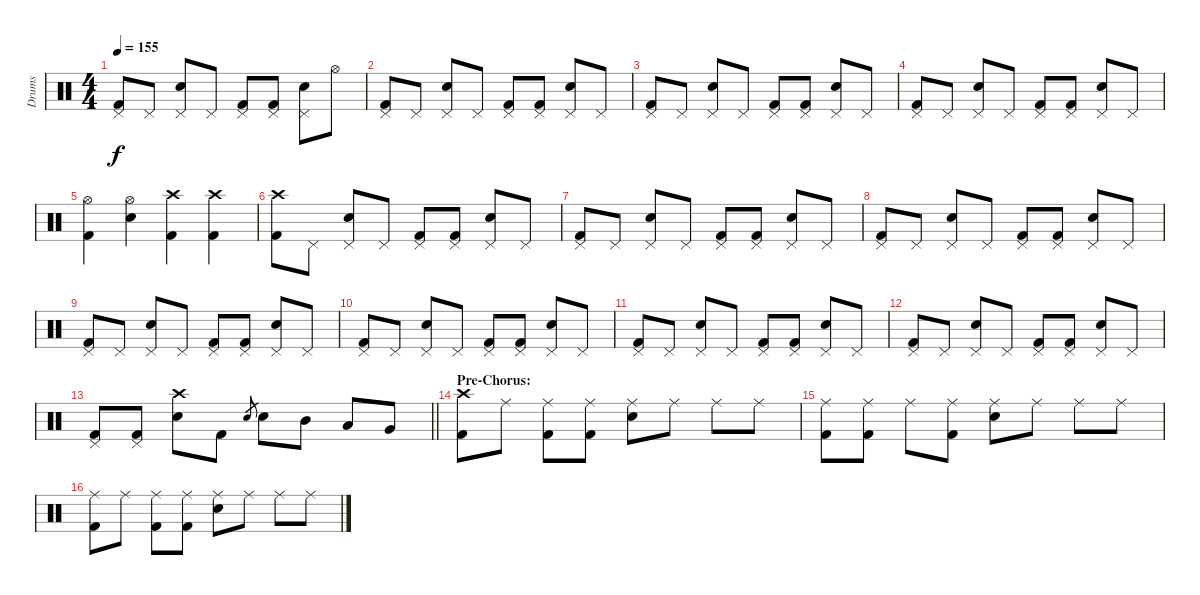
\track ("Drums" "Drums") {instrument percussion}
\staff {score}
\articulation defaults
\ts (4 4)
\tempo 155
\clef neutral
\ks c
("Pedal Hi-Hat (hit)" "Kick (hit) 2").8{dy f} "Pedal Hi-Hat (hit)".8 ("Pedal Hi-Hat (hit)" "Electric Snare (hit)").8 "Pedal Hi-Hat (hit)".8 ("Pedal Hi-Hat (hit)" "Kick (hit) 2").8 ("Pedal Hi-Hat (hit)" "Kick (hit) 2").8 ("Pedal Hi-Hat (hit)" "Electric Snare (hit)").8 "Hi-Hat (open)".8 |
("Pedal Hi-Hat (hit)" "Kick (hit) 2").8 "Pedal Hi-Hat (hit)".8 ("Pedal Hi-Hat (hit)" "Electric Snare (hit)").8 "Pedal Hi-Hat (hit)".8 ("Pedal Hi-Hat (hit)" "Kick (hit) 2").8 ("Pedal Hi-Hat (hit)" "Kick (hit) 2").8 ("Pedal Hi-Hat (hit)" "Electric Snare (hit)").8 "Pedal Hi-Hat (hit)".8 |
("Pedal Hi-Hat (hit)" "Kick (hit) 2").8 "Pedal Hi-Hat (hit)".8 ("Pedal Hi-Hat (hit)" "Electric Snare (hit)").8 "Pedal Hi-Hat (hit)".8 ("Pedal Hi-Hat (hit)" "Kick (hit) 2").8 ("Pedal Hi-Hat (hit)" "Kick (hit) 2").8 ("Pedal Hi-Hat (hit)" "Electric Snare (hit)").8 "Pedal Hi-Hat (hit)".8 |
("Pedal Hi-Hat (hit)" "Kick (hit) 2").8 "Pedal Hi-Hat (hit)".8 ("Pedal Hi-Hat (hit)" "Electric Snare (hit)").8 "Pedal Hi-Hat (hit)".8 ("Pedal Hi-Hat (hit)" "Kick (hit) 2").8 ("Pedal Hi-Hat (hit)" "Kick (hit) 2").8 ("Pedal Hi-Hat (hit)" "Electric Snare (hit)").8 "Pedal Hi-Hat (hit)".8 |
("Hi-Hat (open)" "Kick (hit) 2").4 ("Hi-Hat (open)" "Electric Snare (hit)").4 ("Crash high (hit)" "Kick (hit) 2").4 ("Crash high (hit)" "Kick (hit) 2").4 |
("Crash high (hit)" "Kick (hit) 2").8 "Pedal Hi-Hat (hit)".8 ("Pedal Hi-Hat (hit)" "Electric Snare (hit)").8 "Pedal Hi-Hat (hit)".8 ("Pedal Hi-Hat (hit)" "Kick (hit) 2").8 ("Pedal Hi-Hat (hit)" "Kick (hit) 2").8 ("Pedal Hi-Hat (hit)" "Electric Snare (hit)").8 "Pedal Hi-Hat (hit)".8 |
("Pedal Hi-Hat (hit)" "Kick (hit) 2").8 "Pedal Hi-Hat (hit)".8 ("Pedal Hi-Hat (hit)" "Electric Snare (hit)").8 "Pedal Hi-Hat (hit)".8 ("Pedal Hi-Hat (hit)" "Kick (hit) 2").8 ("Pedal Hi-Hat (hit)" "Kick (hit) 2").8 ("Pedal Hi-Hat (hit)" "Electric Snare (hit)").8 "Pedal Hi-Hat (hit)".8 |
("Pedal Hi-Hat (hit)" "Kick (hit) 2").8 "Pedal Hi-Hat (hit)".8 ("Pedal Hi-Hat (hit)" "Electric Snare (hit)").8 "Pedal Hi-Hat (hit)".8 ("Pedal Hi-Hat (hit)" "Kick (hit) 2").8 ("Pedal Hi-Hat (hit)" "Kick (hit) 2").8 ("Pedal Hi-Hat (hit)" "Electric Snare (hit)").8 "Pedal Hi-Hat (hit)".8 |
("Pedal Hi-Hat (hit)" "Kick (hit) 2").8 "Pedal Hi-Hat (hit)".8 ("Pedal Hi-Hat (hit)" "Electric Snare (hit)").8 "Pedal Hi-Hat (hit)".8 ("Pedal Hi-Hat (hit)" "Kick (hit) 2").8 ("Pedal Hi-Hat (hit)" "Kick (hit) 2").8 ("Pedal Hi-Hat (hit)" "Electric Snare (hit)").8 "Pedal Hi-Hat (hit)".8 |
("Pedal Hi-Hat (hit)" "Kick (hit) 2").8 "Pedal Hi-Hat (hit)".8 ("Pedal Hi-Hat (hit)" "Electric Snare (hit)").8 "Pedal Hi-Hat (hit)".8 ("Pedal Hi-Hat (hit)" "Kick (hit) 2").8 ("Pedal Hi-Hat (hit)" "Kick (hit) 2").8 ("Pedal Hi-Hat (hit)" "Electric Snare (hit)").8 "Pedal Hi-Hat (hit)".8 |
("Pedal Hi-Hat (hit)" "Kick (hit) 2").8 "Pedal Hi-Hat (hit)".8 ("Pedal Hi-Hat (hit)" "Electric Snare (hit)").8 "Pedal Hi-Hat (hit)".8 ("Pedal Hi-Hat (hit)" "Kick (hit) 2").8 ("Pedal Hi-Hat (hit)" "Kick (hit) 2").8 ("Pedal Hi-Hat (hit)" "Electric Snare (hit)").8 "Pedal Hi-Hat (hit)".8 |
("Pedal Hi-Hat (hit)" "Kick (hit) 2").8 "Pedal Hi-Hat (hit)".8 ("Pedal Hi-Hat (hit)" "Electric Snare (hit)").8 "Pedal Hi-Hat (hit)".8 ("Pedal Hi-Hat (hit)" "Kick (hit) 2").8 ("Pedal Hi-Hat (hit)" "Kick (hit) 2").8 ("Pedal Hi-Hat (hit)" "Electric Snare (hit)").8 "Pedal Hi-Hat (hit)".8 |
\barLineRight lightlight
("Pedal Hi-Hat (hit)" "Kick (hit) 2").8 ("Pedal Hi-Hat (hit)" "Kick (hit) 2").8 ("Crash high (hit)" "Electric Snare (hit)").8 "Kick (hit) 2".8 "Electric Snare (hit)".8{gr} "Electric Snare (hit)".8 "Mid Tom (hit)".8 "Low Tom (hit)".8 "Very Low Tom (hit)".8 |
\section ("" "Pre-Chorus:")
("Crash high (hit)" "Kick (hit) 2").8 "Ride (middle)".8 ("Ride (middle)" "Kick (hit) 2").8 ("Ride (middle)" "Kick (hit) 2").8 ("Ride (middle)" "Electric Snare (hit)").8 "Ride (middle)".8 "Ride (middle)".8 "Ride (middle)".8 |
("Ride (middle)" "Kick (hit) 2").8 ("Ride (middle)" "Kick (hit) 2").8 "Ride (middle)".8 ("Ride (middle)" "Kick (hit) 2").8 ("Ride (middle)" "Electric Snare (hit)").8 "Ride (middle)".8 "Ride (middle)".8 "Ride (middle)".8 |
("Ride (middle)" "Kick (hit) 2").8 "Ride (middle)".8 ("Ride (middle)" "Kick (hit) 2").8 ("Ride (middle)" "Kick (hit) 2").8 ("Ride (middle)" "Electric Snare (hit)").8 "Ride (middle)".8 "Ride (middle)".8 "Ride (middle)".8
